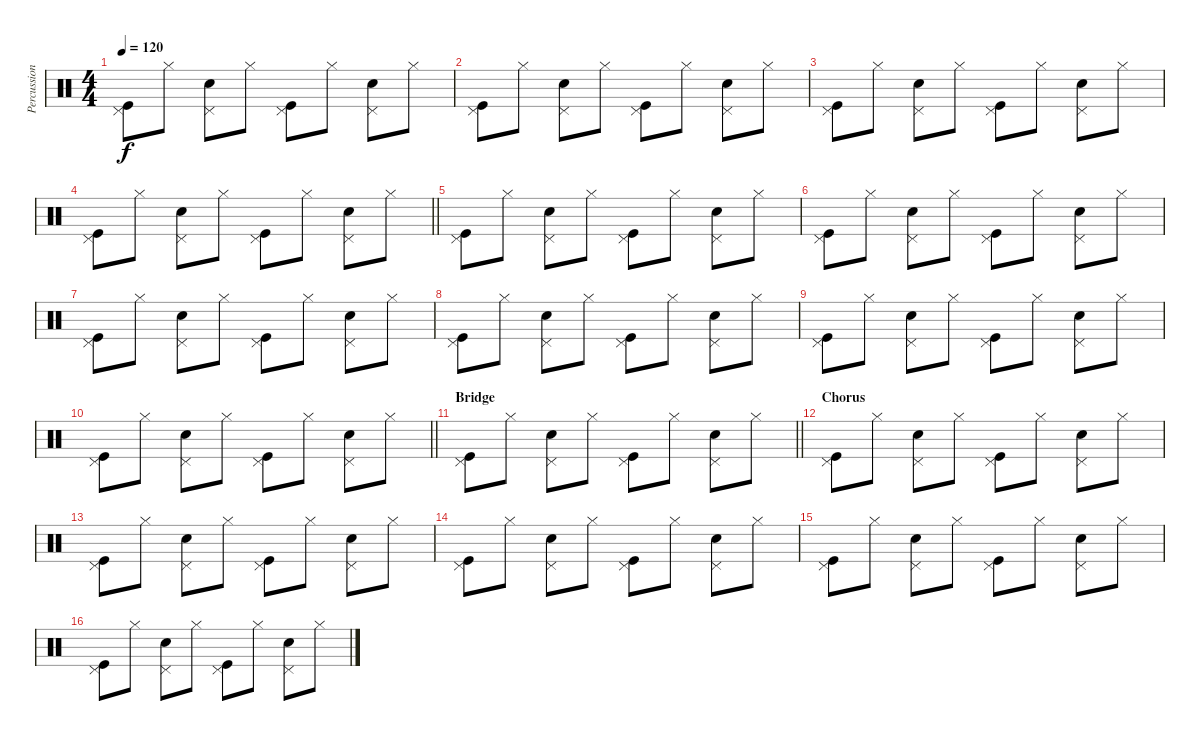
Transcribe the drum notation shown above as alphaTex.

\track ("Percussion - Ian Astbury" "Percussion") {instrument percussion}
\staff {score}
\articulation defaults
\ts (4 4)
\tempo 120
\clef neutral
\ks c
("Pedal Hi-Hat (hit)" "Kick (hit)").8{dy f} "Hi-Hat (closed)".8 ("Pedal Hi-Hat (hit)" "Electric Snare (hit)").8 "Hi-Hat (closed)".8 ("Pedal Hi-Hat (hit)" "Kick (hit)").8 "Hi-Hat (closed)".8 ("Pedal Hi-Hat (hit)" "Electric Snare (hit)").8 "Hi-Hat (closed)".8 |
("Pedal Hi-Hat (hit)" "Kick (hit)").8 "Hi-Hat (closed)".8 ("Pedal Hi-Hat (hit)" "Electric Snare (hit)").8 "Hi-Hat (closed)".8 ("Pedal Hi-Hat (hit)" "Kick (hit)").8 "Hi-Hat (closed)".8 ("Pedal Hi-Hat (hit)" "Electric Snare (hit)").8 "Hi-Hat (closed)".8 |
("Pedal Hi-Hat (hit)" "Kick (hit)").8 "Hi-Hat (closed)".8 ("Pedal Hi-Hat (hit)" "Electric Snare (hit)").8 "Hi-Hat (closed)".8 ("Pedal Hi-Hat (hit)" "Kick (hit)").8 "Hi-Hat (closed)".8 ("Pedal Hi-Hat (hit)" "Electric Snare (hit)").8 "Hi-Hat (closed)".8 |
\barLineRight lightlight
("Pedal Hi-Hat (hit)" "Kick (hit)").8 "Hi-Hat (closed)".8 ("Pedal Hi-Hat (hit)" "Electric Snare (hit)").8 "Hi-Hat (closed)".8 ("Pedal Hi-Hat (hit)" "Kick (hit)").8 "Hi-Hat (closed)".8 ("Pedal Hi-Hat (hit)" "Electric Snare (hit)").8 "Hi-Hat (closed)".8 |
("Pedal Hi-Hat (hit)" "Kick (hit)").8 "Hi-Hat (closed)".8 ("Pedal Hi-Hat (hit)" "Electric Snare (hit)").8 "Hi-Hat (closed)".8 ("Pedal Hi-Hat (hit)" "Kick (hit)").8 "Hi-Hat (closed)".8 ("Pedal Hi-Hat (hit)" "Electric Snare (hit)").8 "Hi-Hat (closed)".8 |
("Pedal Hi-Hat (hit)" "Kick (hit)").8 "Hi-Hat (closed)".8 ("Pedal Hi-Hat (hit)" "Electric Snare (hit)").8 "Hi-Hat (closed)".8 ("Pedal Hi-Hat (hit)" "Kick (hit)").8 "Hi-Hat (closed)".8 ("Pedal Hi-Hat (hit)" "Electric Snare (hit)").8 "Hi-Hat (closed)".8 |
("Pedal Hi-Hat (hit)" "Kick (hit)").8 "Hi-Hat (closed)".8 ("Pedal Hi-Hat (hit)" "Electric Snare (hit)").8 "Hi-Hat (closed)".8 ("Pedal Hi-Hat (hit)" "Kick (hit)").8 "Hi-Hat (closed)".8 ("Pedal Hi-Hat (hit)" "Electric Snare (hit)").8 "Hi-Hat (closed)".8 |
("Pedal Hi-Hat (hit)" "Kick (hit)").8 "Hi-Hat (closed)".8 ("Pedal Hi-Hat (hit)" "Electric Snare (hit)").8 "Hi-Hat (closed)".8 ("Pedal Hi-Hat (hit)" "Kick (hit)").8 "Hi-Hat (closed)".8 ("Pedal Hi-Hat (hit)" "Electric Snare (hit)").8 "Hi-Hat (closed)".8 |
("Pedal Hi-Hat (hit)" "Kick (hit)").8 "Hi-Hat (closed)".8 ("Pedal Hi-Hat (hit)" "Electric Snare (hit)").8 "Hi-Hat (closed)".8 ("Pedal Hi-Hat (hit)" "Kick (hit)").8 "Hi-Hat (closed)".8 ("Pedal Hi-Hat (hit)" "Electric Snare (hit)").8 "Hi-Hat (closed)".8 |
\barLineRight lightlight
("Pedal Hi-Hat (hit)" "Kick (hit)").8 "Hi-Hat (closed)".8 ("Pedal Hi-Hat (hit)" "Electric Snare (hit)").8 "Hi-Hat (closed)".8 ("Pedal Hi-Hat (hit)" "Kick (hit)").8 "Hi-Hat (closed)".8 ("Pedal Hi-Hat (hit)" "Electric Snare (hit)").8 "Hi-Hat (closed)".8 |
\section ("" "Bridge")
\barLineRight lightlight
("Pedal Hi-Hat (hit)" "Kick (hit)").8 "Hi-Hat (closed)".8 ("Pedal Hi-Hat (hit)" "Electric Snare (hit)").8 "Hi-Hat (closed)".8 ("Pedal Hi-Hat (hit)" "Kick (hit)").8 "Hi-Hat (closed)".8 ("Pedal Hi-Hat (hit)" "Electric Snare (hit)").8 "Hi-Hat (closed)".8 |
\section ("" "Chorus")
("Pedal Hi-Hat (hit)" "Kick (hit)").8 "Hi-Hat (closed)".8 ("Pedal Hi-Hat (hit)" "Electric Snare (hit)").8 "Hi-Hat (closed)".8 ("Pedal Hi-Hat (hit)" "Kick (hit)").8 "Hi-Hat (closed)".8 ("Pedal Hi-Hat (hit)" "Electric Snare (hit)").8 "Hi-Hat (closed)".8 |
("Pedal Hi-Hat (hit)" "Kick (hit)").8 "Hi-Hat (closed)".8 ("Pedal Hi-Hat (hit)" "Electric Snare (hit)").8 "Hi-Hat (closed)".8 ("Pedal Hi-Hat (hit)" "Kick (hit)").8 "Hi-Hat (closed)".8 ("Pedal Hi-Hat (hit)" "Electric Snare (hit)").8 "Hi-Hat (closed)".8 |
("Pedal Hi-Hat (hit)" "Kick (hit)").8 "Hi-Hat (closed)".8 ("Pedal Hi-Hat (hit)" "Electric Snare (hit)").8 "Hi-Hat (closed)".8 ("Pedal Hi-Hat (hit)" "Kick (hit)").8 "Hi-Hat (closed)".8 ("Pedal Hi-Hat (hit)" "Electric Snare (hit)").8 "Hi-Hat (closed)".8 |
("Pedal Hi-Hat (hit)" "Kick (hit)").8 "Hi-Hat (closed)".8 ("Pedal Hi-Hat (hit)" "Electric Snare (hit)").8 "Hi-Hat (closed)".8 ("Pedal Hi-Hat (hit)" "Kick (hit)").8 "Hi-Hat (closed)".8 ("Pedal Hi-Hat (hit)" "Electric Snare (hit)").8 "Hi-Hat (closed)".8 |
("Pedal Hi-Hat (hit)" "Kick (hit)").8 "Hi-Hat (closed)".8 ("Pedal Hi-Hat (hit)" "Electric Snare (hit)").8 "Hi-Hat (closed)".8 ("Pedal Hi-Hat (hit)" "Kick (hit)").8 "Hi-Hat (closed)".8 ("Pedal Hi-Hat (hit)" "Electric Snare (hit)").8 "Hi-Hat (closed)".8
